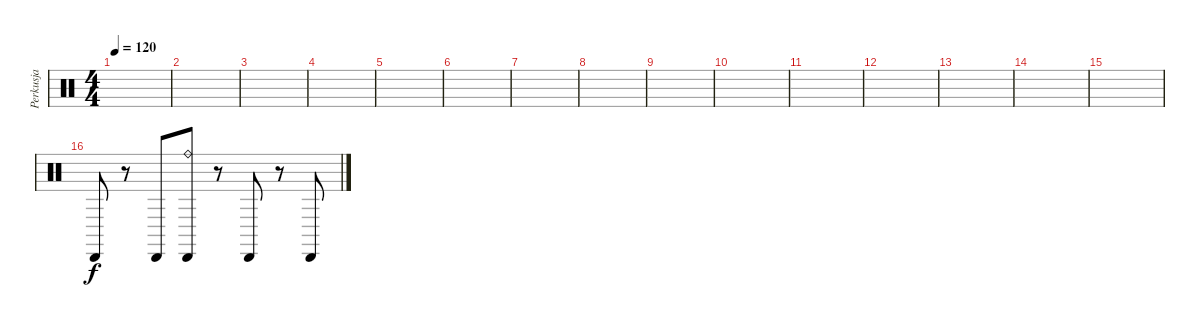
\track ("Perkusja" "Perkusja") {instrument percussion}
\staff {score}
\articulation defaults
\ts (4 4)
\tempo 120
\clef neutral
\ks c
|
|
|
|
|
|
|
|
|
|
|
|
|
|
|
"Cabasa (hit)".8 r.8 "Cabasa (hit)".8 ("Ride (bell)" "Cabasa (hit)").8 r.8 "Cabasa (hit)".8 r.8 "Cabasa (hit)".8
